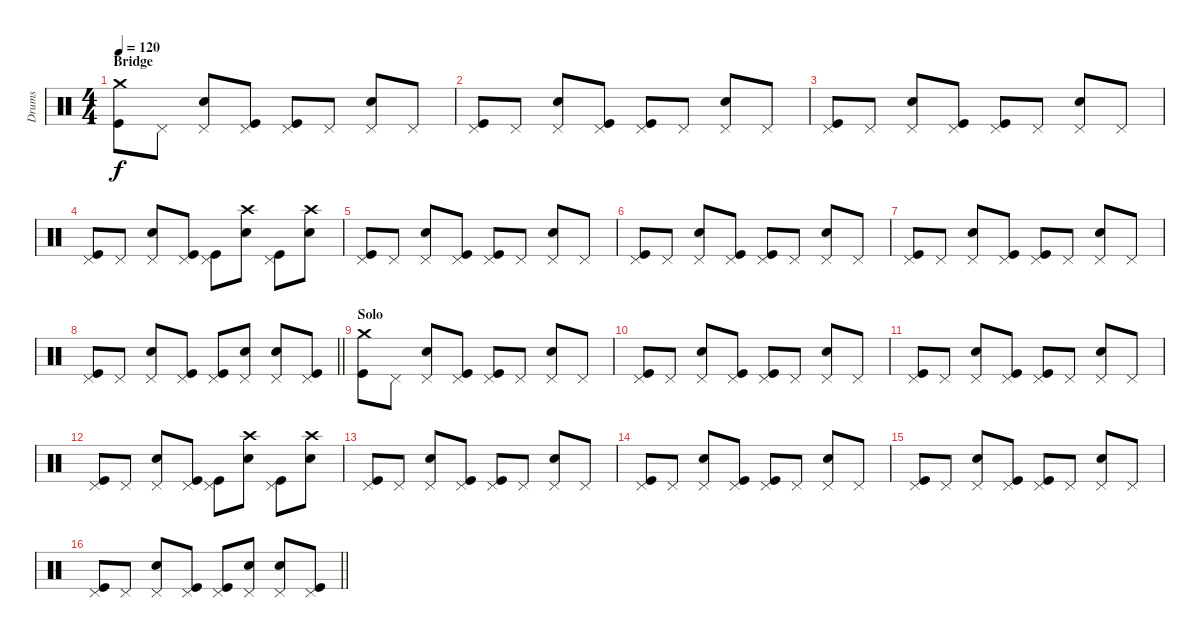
\track ("Drums" "Drums") {instrument percussion}
\staff {score}
\articulation defaults
\ts (4 4)
\section ("" "Bridge")
\tempo 120
\clef neutral
\ks c
("Crash medium (hit)" "Kick (hit)").8{dy f} "Pedal Hi-Hat (hit)".8 ("Pedal Hi-Hat (hit)" "Snare (hit) 2").8 ("Pedal Hi-Hat (hit)" "Kick (hit)").8 ("Pedal Hi-Hat (hit)" "Kick (hit)").8 "Pedal Hi-Hat (hit)".8 ("Pedal Hi-Hat (hit)" "Snare (hit) 2").8 "Pedal Hi-Hat (hit)".8 |
("Pedal Hi-Hat (hit)" "Kick (hit)").8 "Pedal Hi-Hat (hit)".8 ("Pedal Hi-Hat (hit)" "Snare (hit) 2").8 ("Pedal Hi-Hat (hit)" "Kick (hit)").8 ("Pedal Hi-Hat (hit)" "Kick (hit)").8 "Pedal Hi-Hat (hit)".8 ("Pedal Hi-Hat (hit)" "Snare (hit) 2").8 "Pedal Hi-Hat (hit)".8 |
("Pedal Hi-Hat (hit)" "Kick (hit)").8 "Pedal Hi-Hat (hit)".8 ("Pedal Hi-Hat (hit)" "Snare (hit) 2").8 ("Pedal Hi-Hat (hit)" "Kick (hit)").8 ("Pedal Hi-Hat (hit)" "Kick (hit)").8 "Pedal Hi-Hat (hit)".8 ("Pedal Hi-Hat (hit)" "Snare (hit) 2").8 "Pedal Hi-Hat (hit)".8 |
("Pedal Hi-Hat (hit)" "Kick (hit)").8 "Pedal Hi-Hat (hit)".8 ("Pedal Hi-Hat (hit)" "Snare (hit) 2").8 ("Pedal Hi-Hat (hit)" "Kick (hit)").8 ("Pedal Hi-Hat (hit)" "Kick (hit)").8 ("Crash high (hit)" "Snare (hit) 2").8 ("Pedal Hi-Hat (hit)" "Kick (hit)").8 ("Crash high (hit)" "Snare (hit) 2").8 |
("Pedal Hi-Hat (hit)" "Kick (hit)").8 "Pedal Hi-Hat (hit)".8 ("Pedal Hi-Hat (hit)" "Snare (hit) 2").8 ("Pedal Hi-Hat (hit)" "Kick (hit)").8 ("Pedal Hi-Hat (hit)" "Kick (hit)").8 "Pedal Hi-Hat (hit)".8 ("Pedal Hi-Hat (hit)" "Snare (hit) 2").8 "Pedal Hi-Hat (hit)".8 |
("Pedal Hi-Hat (hit)" "Kick (hit)").8 "Pedal Hi-Hat (hit)".8 ("Pedal Hi-Hat (hit)" "Snare (hit) 2").8 ("Pedal Hi-Hat (hit)" "Kick (hit)").8 ("Pedal Hi-Hat (hit)" "Kick (hit)").8 "Pedal Hi-Hat (hit)".8 ("Pedal Hi-Hat (hit)" "Snare (hit) 2").8 "Pedal Hi-Hat (hit)".8 |
("Pedal Hi-Hat (hit)" "Kick (hit)").8 "Pedal Hi-Hat (hit)".8 ("Pedal Hi-Hat (hit)" "Snare (hit) 2").8 ("Pedal Hi-Hat (hit)" "Kick (hit)").8 ("Pedal Hi-Hat (hit)" "Kick (hit)").8 "Pedal Hi-Hat (hit)".8 ("Pedal Hi-Hat (hit)" "Snare (hit) 2").8 "Pedal Hi-Hat (hit)".8 |
\barLineRight lightlight
("Pedal Hi-Hat (hit)" "Kick (hit)").8 "Pedal Hi-Hat (hit)".8 ("Pedal Hi-Hat (hit)" "Snare (hit) 2").8 ("Pedal Hi-Hat (hit)" "Kick (hit)").8 ("Pedal Hi-Hat (hit)" "Kick (hit)").8 ("Pedal Hi-Hat (hit)" "Snare (hit) 2").8 ("Pedal Hi-Hat (hit)" "Snare (hit) 2").8 ("Pedal Hi-Hat (hit)" "Kick (hit)").8 |
\section ("" "Solo")
("Crash medium (hit)" "Kick (hit)").8 "Pedal Hi-Hat (hit)".8 ("Pedal Hi-Hat (hit)" "Snare (hit) 2").8 ("Pedal Hi-Hat (hit)" "Kick (hit)").8 ("Pedal Hi-Hat (hit)" "Kick (hit)").8 "Pedal Hi-Hat (hit)".8 ("Pedal Hi-Hat (hit)" "Snare (hit) 2").8 "Pedal Hi-Hat (hit)".8 |
("Pedal Hi-Hat (hit)" "Kick (hit)").8 "Pedal Hi-Hat (hit)".8 ("Pedal Hi-Hat (hit)" "Snare (hit) 2").8 ("Pedal Hi-Hat (hit)" "Kick (hit)").8 ("Pedal Hi-Hat (hit)" "Kick (hit)").8 "Pedal Hi-Hat (hit)".8 ("Pedal Hi-Hat (hit)" "Snare (hit) 2").8 "Pedal Hi-Hat (hit)".8 |
("Pedal Hi-Hat (hit)" "Kick (hit)").8 "Pedal Hi-Hat (hit)".8 ("Pedal Hi-Hat (hit)" "Snare (hit) 2").8 ("Pedal Hi-Hat (hit)" "Kick (hit)").8 ("Pedal Hi-Hat (hit)" "Kick (hit)").8 "Pedal Hi-Hat (hit)".8 ("Pedal Hi-Hat (hit)" "Snare (hit) 2").8 "Pedal Hi-Hat (hit)".8 |
("Pedal Hi-Hat (hit)" "Kick (hit)").8 "Pedal Hi-Hat (hit)".8 ("Pedal Hi-Hat (hit)" "Snare (hit) 2").8 ("Pedal Hi-Hat (hit)" "Kick (hit)").8 ("Pedal Hi-Hat (hit)" "Kick (hit)").8 ("Crash high (hit)" "Snare (hit) 2").8 ("Pedal Hi-Hat (hit)" "Kick (hit)").8 ("Crash high (hit)" "Snare (hit) 2").8 |
("Pedal Hi-Hat (hit)" "Kick (hit)").8 "Pedal Hi-Hat (hit)".8 ("Pedal Hi-Hat (hit)" "Snare (hit) 2").8 ("Pedal Hi-Hat (hit)" "Kick (hit)").8 ("Pedal Hi-Hat (hit)" "Kick (hit)").8 "Pedal Hi-Hat (hit)".8 ("Pedal Hi-Hat (hit)" "Snare (hit) 2").8 "Pedal Hi-Hat (hit)".8 |
("Pedal Hi-Hat (hit)" "Kick (hit)").8 "Pedal Hi-Hat (hit)".8 ("Pedal Hi-Hat (hit)" "Snare (hit) 2").8 ("Pedal Hi-Hat (hit)" "Kick (hit)").8 ("Pedal Hi-Hat (hit)" "Kick (hit)").8 "Pedal Hi-Hat (hit)".8 ("Pedal Hi-Hat (hit)" "Snare (hit) 2").8 "Pedal Hi-Hat (hit)".8 |
("Pedal Hi-Hat (hit)" "Kick (hit)").8 "Pedal Hi-Hat (hit)".8 ("Pedal Hi-Hat (hit)" "Snare (hit) 2").8 ("Pedal Hi-Hat (hit)" "Kick (hit)").8 ("Pedal Hi-Hat (hit)" "Kick (hit)").8 "Pedal Hi-Hat (hit)".8 ("Pedal Hi-Hat (hit)" "Snare (hit) 2").8 "Pedal Hi-Hat (hit)".8 |
\barLineRight lightlight
("Pedal Hi-Hat (hit)" "Kick (hit)").8 "Pedal Hi-Hat (hit)".8 ("Pedal Hi-Hat (hit)" "Snare (hit) 2").8 ("Pedal Hi-Hat (hit)" "Kick (hit)").8 ("Pedal Hi-Hat (hit)" "Kick (hit)").8 ("Pedal Hi-Hat (hit)" "Snare (hit) 2").8 ("Pedal Hi-Hat (hit)" "Snare (hit) 2").8 ("Pedal Hi-Hat (hit)" "Kick (hit)").8
